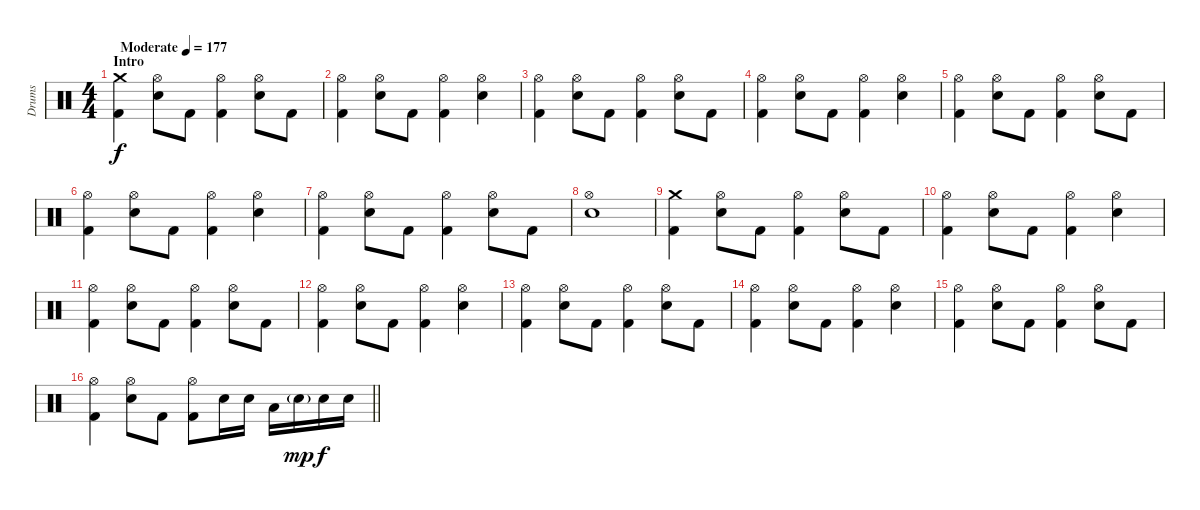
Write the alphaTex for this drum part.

\track ("Drums" "Drums") {instrument percussion}
\staff {score}
\articulation defaults
\ts (4 4)
\section ("" "Intro")
\tempo (177 "Moderate")
\clef neutral
\ks c
("Crash medium (hit)" "Kick (hit) 2").4{dy f} ("Hi-Hat (open)" "Electric Snare (hit)").8 "Kick (hit) 2".8 ("Hi-Hat (open)" "Kick (hit) 2").4 ("Hi-Hat (open)" "Electric Snare (hit)").8 "Kick (hit) 2".8 |
("Hi-Hat (open)" "Kick (hit) 2").4 ("Hi-Hat (open)" "Electric Snare (hit)").8 "Kick (hit) 2".8 ("Hi-Hat (open)" "Kick (hit) 2").4 ("Hi-Hat (open)" "Electric Snare (hit)").4 |
("Hi-Hat (open)" "Kick (hit) 2").4 ("Hi-Hat (open)" "Electric Snare (hit)").8 "Kick (hit) 2".8 ("Hi-Hat (open)" "Kick (hit) 2").4 ("Hi-Hat (open)" "Electric Snare (hit)").8 "Kick (hit) 2".8 |
("Hi-Hat (open)" "Kick (hit) 2").4 ("Hi-Hat (open)" "Electric Snare (hit)").8 "Kick (hit) 2".8 ("Hi-Hat (open)" "Kick (hit) 2").4 ("Hi-Hat (open)" "Electric Snare (hit)").4 |
("Hi-Hat (open)" "Kick (hit) 2").4 ("Hi-Hat (open)" "Electric Snare (hit)").8 "Kick (hit) 2".8 ("Hi-Hat (open)" "Kick (hit) 2").4 ("Hi-Hat (open)" "Electric Snare (hit)").8 "Kick (hit) 2".8 |
("Hi-Hat (open)" "Kick (hit) 2").4 ("Hi-Hat (open)" "Electric Snare (hit)").8 "Kick (hit) 2".8 ("Hi-Hat (open)" "Kick (hit) 2").4 ("Hi-Hat (open)" "Electric Snare (hit)").4 |
("Hi-Hat (open)" "Kick (hit) 2").4 ("Hi-Hat (open)" "Electric Snare (hit)").8 "Kick (hit) 2".8 ("Hi-Hat (open)" "Kick (hit) 2").4 ("Hi-Hat (open)" "Electric Snare (hit)").8 "Kick (hit) 2".8 |
("Hi-Hat (open)" "Electric Snare (hit)").1 |
("Crash medium (hit)" "Kick (hit) 2").4 ("Hi-Hat (open)" "Electric Snare (hit)").8 "Kick (hit) 2".8 ("Hi-Hat (open)" "Kick (hit) 2").4 ("Hi-Hat (open)" "Electric Snare (hit)").8 "Kick (hit) 2".8 |
("Hi-Hat (open)" "Kick (hit) 2").4 ("Hi-Hat (open)" "Electric Snare (hit)").8 "Kick (hit) 2".8 ("Hi-Hat (open)" "Kick (hit) 2").4 ("Hi-Hat (open)" "Electric Snare (hit)").4 |
("Hi-Hat (open)" "Kick (hit) 2").4 ("Hi-Hat (open)" "Electric Snare (hit)").8 "Kick (hit) 2".8 ("Hi-Hat (open)" "Kick (hit) 2").4 ("Hi-Hat (open)" "Electric Snare (hit)").8 "Kick (hit) 2".8 |
("Hi-Hat (open)" "Kick (hit) 2").4 ("Hi-Hat (open)" "Electric Snare (hit)").8 "Kick (hit) 2".8 ("Hi-Hat (open)" "Kick (hit) 2").4 ("Hi-Hat (open)" "Electric Snare (hit)").4 |
("Hi-Hat (open)" "Kick (hit) 2").4 ("Hi-Hat (open)" "Electric Snare (hit)").8 "Kick (hit) 2".8 ("Hi-Hat (open)" "Kick (hit) 2").4 ("Hi-Hat (open)" "Electric Snare (hit)").8 "Kick (hit) 2".8 |
("Hi-Hat (open)" "Kick (hit) 2").4 ("Hi-Hat (open)" "Electric Snare (hit)").8 "Kick (hit) 2".8 ("Hi-Hat (open)" "Kick (hit) 2").4 ("Hi-Hat (open)" "Electric Snare (hit)").4 |
("Hi-Hat (open)" "Kick (hit) 2").4 ("Hi-Hat (open)" "Electric Snare (hit)").8 "Kick (hit) 2".8 ("Hi-Hat (open)" "Kick (hit) 2").4 ("Hi-Hat (open)" "Electric Snare (hit)").8 "Kick (hit) 2".8 |
\barLineRight lightlight
("Hi-Hat (open)" "Kick (hit) 2").4 ("Hi-Hat (open)" "Electric Snare (hit)").8 "Kick (hit) 2".8 ("Hi-Hat (open)" "Kick (hit) 2").8 "Electric Snare (hit)".16 "Electric Snare (hit)".16 "Low Tom (hit)".16 "Electric Snare (hit)"{g}.16{dy mp} "Electric Snare (hit)".16{dy f} "Electric Snare (hit)".16
